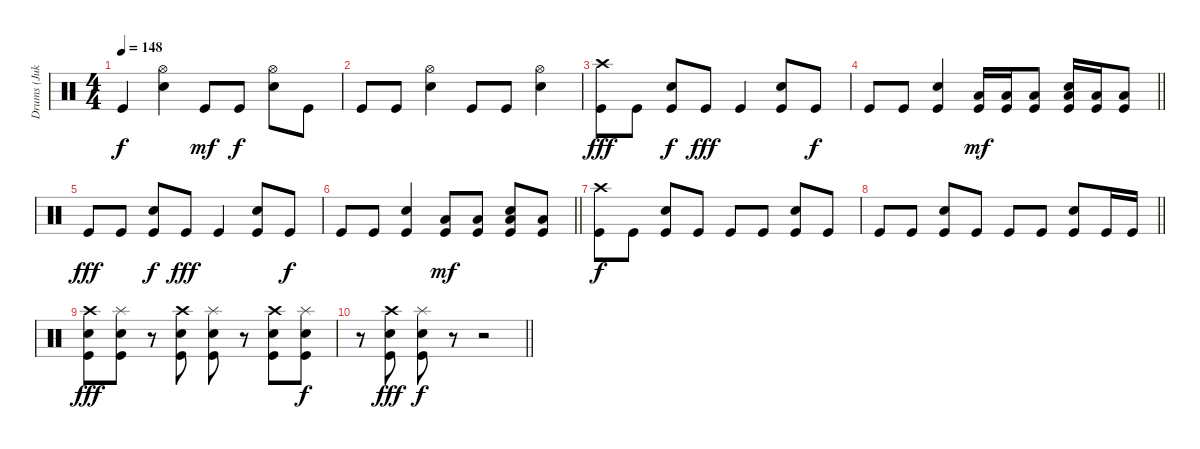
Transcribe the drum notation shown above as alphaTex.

\track ("Drums (Jukka)" "Drums (Juk") {instrument percussion}
\staff {score}
\articulation defaults
\ts (4 4)
\tempo 148
\clef neutral
\ks c "Kick (hit)".4{dy f}
("Snare (hit) 2" "Hi-Hat (open)").4 "Kick (hit)".8{dy mf} "Kick (hit)".8{dy f} ("Snare (hit) 2" "Hi-Hat (open)").8 "Kick (hit)".8 |
"Kick (hit)".8 "Kick (hit)".8 ("Snare (hit) 2" "Hi-Hat (open)").4 "Kick (hit)".8 "Kick (hit)".8 ("Snare (hit) 2" "Hi-Hat (open)").4 |
("Kick (hit)" "Crash high (hit)").8{dy fff} "Kick (hit)".8 ("Kick (hit)" "Snare (hit) 2").8{dy f} "Kick (hit)".8{dy fff} "Kick (hit)".4 ("Kick (hit)" "Snare (hit) 2").8 "Kick (hit)".8{dy f} |
\barLineRight lightlight "Kick (hit)".8 "Kick (hit)".8
("Kick (hit)" "Snare (hit) 2").4 ("Kick (hit)" "Low Floor Tom (hit)").16{dy mf} ("Kick (hit)" "Low Floor Tom (hit)").16 ("Kick (hit)" "Low Floor Tom (hit)").8 ("Kick (hit)" "Low Floor Tom (hit)" "Snare (hit) 2").16 ("Kick (hit)" "Low Floor Tom (hit)").16 ("Kick (hit)" "Low Floor Tom (hit)").8 |
"Kick (hit)".8{dy fff} "Kick (hit)".8 ("Kick (hit)" "Snare (hit) 2").8{dy f} "Kick (hit)".8{dy fff} "Kick (hit)".4 ("Kick (hit)" "Snare (hit) 2").8 "Kick (hit)".8{dy f} |
\barLineRight lightlight "Kick (hit)".8 "Kick (hit)".8
("Kick (hit)" "Snare (hit) 2").4 ("Kick (hit)" "Low Floor Tom (hit)").8{dy mf} ("Kick (hit)" "Low Floor Tom (hit)").8 ("Kick (hit)" "Low Floor Tom (hit)" "Snare (hit) 2").8 ("Kick (hit)" "Low Floor Tom (hit)").8 |
("Kick (hit)" "Crash high (hit)").8{dy f} "Kick (hit)".8 ("Kick (hit)" "Snare (hit) 2").8 "Kick (hit)".8 "Kick (hit)".8 "Kick (hit)".8 ("Kick (hit)" "Snare (hit) 2").8 "Kick (hit)".8 |
\barLineRight lightlight "Kick (hit)".8 "Kick (hit)".8
("Kick (hit)" "Snare (hit) 2").8 "Kick (hit)".8 "Kick (hit)".8 "Kick (hit)".8 ("Kick (hit)" "Snare (hit) 2").8 "Kick (hit)".16 "Kick (hit)".16 |
("Kick (hit)" "Snare (hit) 2" "Crash high (hit)").8{dy fff} ("Kick (hit)" "Snare (hit) 2" "Splash (hit)").8 r.8 ("Kick (hit)" "Snare (hit) 2" "Crash high (hit)").8 ("Kick (hit)" "Snare (hit) 2" "Splash (hit)").8 r.8 ("Kick (hit)" "Snare (hit) 2" "Crash high (hit)").8 ("Kick (hit)" "Snare (hit) 2" "Splash (hit)").8{dy f} |
\barLineRight lightlight
r.8 ("Kick (hit)" "Snare (hit) 2" "Crash high (hit)").8{dy fff} ("Kick (hit)" "Snare (hit) 2" "Splash (hit)").8{dy f} r.8 r.2
